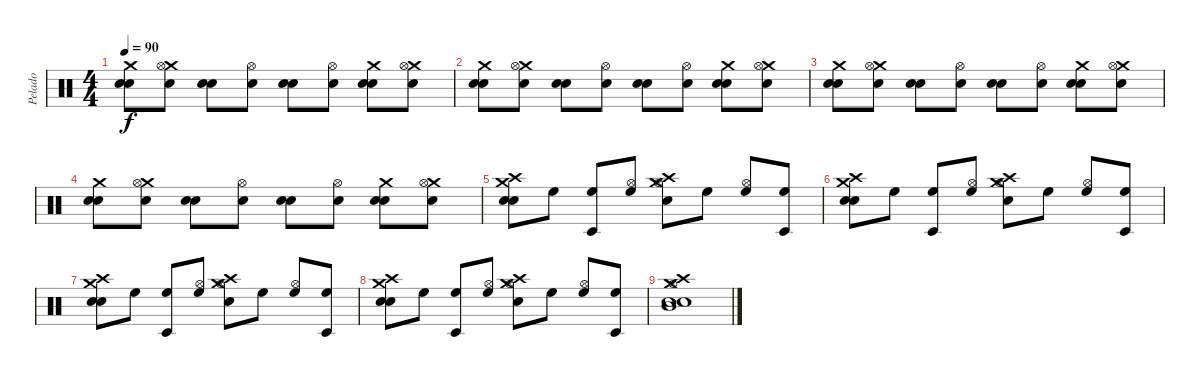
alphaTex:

\track ("Pelado" "Pelado") {instrument percussion}
\staff {score}
\articulation defaults
\ts (4 4)
\tempo 90
\clef neutral
\ks c
("Crash medium (hit)" "Electric Snare (hit)" "Electric Snare (hit)").8{dy f} ("Crash medium (hit)" "Hi-Hat (open)" "Electric Snare (hit)").8 ("Electric Snare (hit)" "Electric Snare (hit)").8 ("Electric Snare (hit)" "Hi-Hat (open)").8 ("Electric Snare (hit)" "Electric Snare (hit)").8 ("Electric Snare (hit)" "Hi-Hat (open)").8 ("Crash medium (hit)" "Electric Snare (hit)" "Electric Snare (hit)").8 ("Crash medium (hit)" "Electric Snare (hit)" "Hi-Hat (open)").8 |
("Crash medium (hit)" "Electric Snare (hit)" "Electric Snare (hit)").8 ("Crash medium (hit)" "Hi-Hat (open)" "Electric Snare (hit)").8 ("Electric Snare (hit)" "Electric Snare (hit)").8 ("Electric Snare (hit)" "Hi-Hat (open)").8 ("Electric Snare (hit)" "Electric Snare (hit)").8 ("Electric Snare (hit)" "Hi-Hat (open)").8 ("Crash medium (hit)" "Electric Snare (hit)" "Electric Snare (hit)").8 ("Crash medium (hit)" "Electric Snare (hit)" "Hi-Hat (open)").8 |
("Crash medium (hit)" "Electric Snare (hit)" "Electric Snare (hit)").8 ("Crash medium (hit)" "Hi-Hat (open)" "Electric Snare (hit)").8 ("Electric Snare (hit)" "Electric Snare (hit)").8 ("Electric Snare (hit)" "Hi-Hat (open)").8 ("Electric Snare (hit)" "Electric Snare (hit)").8 ("Electric Snare (hit)" "Hi-Hat (open)").8 ("Crash medium (hit)" "Electric Snare (hit)" "Electric Snare (hit)").8 ("Crash medium (hit)" "Electric Snare (hit)" "Hi-Hat (open)").8 |
("Crash medium (hit)" "Electric Snare (hit)" "Electric Snare (hit)").8 ("Crash medium (hit)" "Hi-Hat (open)" "Electric Snare (hit)").8 ("Electric Snare (hit)" "Electric Snare (hit)").8 ("Electric Snare (hit)" "Hi-Hat (open)").8 ("Electric Snare (hit)" "Electric Snare (hit)").8 ("Electric Snare (hit)" "Hi-Hat (open)").8 ("Crash medium (hit)" "Electric Snare (hit)" "Electric Snare (hit)").8 ("Crash medium (hit)" "Electric Snare (hit)" "Hi-Hat (open)").8 |
("Crash high (hit)" "Crash medium (hit)" "Electric Snare (hit)" "Electric Snare (hit)").8 "High Floor Tom (hit)".8 ("High Floor Tom (hit)" "Timbale low (hit)").8 ("High Floor Tom (hit)" "Hi-Hat (open)").8 ("Crash high (hit)" "Crash medium (hit)" "Electric Snare (hit)" "Hi-Hat (open)").8 "High Floor Tom (hit)".8 ("High Floor Tom (hit)" "Hi-Hat (open)").8 ("High Floor Tom (hit)" "Timbale low (hit)").8 |
("Crash high (hit)" "Crash medium (hit)" "Electric Snare (hit)" "Electric Snare (hit)").8 "High Floor Tom (hit)".8 ("High Floor Tom (hit)" "Timbale low (hit)").8 ("High Floor Tom (hit)" "Hi-Hat (open)").8 ("Crash high (hit)" "Crash medium (hit)" "Electric Snare (hit)" "Hi-Hat (open)").8 "High Floor Tom (hit)".8 ("High Floor Tom (hit)" "Hi-Hat (open)").8 ("High Floor Tom (hit)" "Timbale low (hit)").8 |
("Crash high (hit)" "Crash medium (hit)" "Electric Snare (hit)" "Electric Snare (hit)").8 "High Floor Tom (hit)".8 ("High Floor Tom (hit)" "Timbale low (hit)").8 ("High Floor Tom (hit)" "Hi-Hat (open)").8 ("Crash high (hit)" "Crash medium (hit)" "Electric Snare (hit)" "Hi-Hat (open)").8 "High Floor Tom (hit)".8 ("High Floor Tom (hit)" "Hi-Hat (open)").8 ("High Floor Tom (hit)" "Timbale low (hit)").8 |
("Crash high (hit)" "Crash medium (hit)" "Electric Snare (hit)" "Electric Snare (hit)").8 "High Floor Tom (hit)".8 ("High Floor Tom (hit)" "Timbale low (hit)").8 ("High Floor Tom (hit)" "Hi-Hat (open)").8 ("Crash high (hit)" "Crash medium (hit)" "Electric Snare (hit)" "Hi-Hat (open)").8 "High Floor Tom (hit)".8 ("High Floor Tom (hit)" "Hi-Hat (open)").8 ("High Floor Tom (hit)" "Timbale low (hit)").8 |
("Mid Tom (hit)" "Crash medium (hit)" "Crash high (hit)" "Hi-Hat (open)" "Electric Snare (hit)" "Electric Snare (hit)").1
